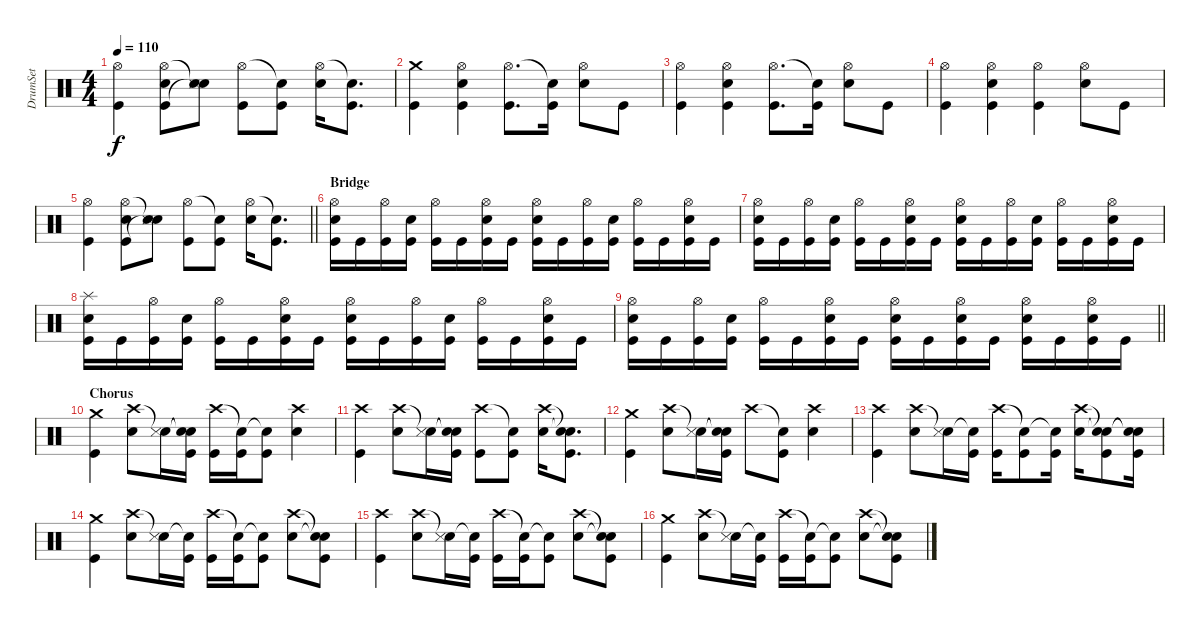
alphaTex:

\track ("DrumSet" "DrumSet") {instrument percussion}
\staff {score}
\articulation defaults
\ts (4 4)
\tempo 110
\clef neutral
\ks c
("Hi-Hat (open)" "Kick (hit)").4{dy f} ("Hi-Hat (open)" "Snare (hit) 2" "Kick (hit)").8 ("Snare (hit)"{t} "Snare (side stick) 3" "Snare (hit)"{t}).8 ("Hi-Hat (open)" "Kick (hit)").8 ("Snare (hit)"{t} "Kick (hit)").8 ("Hi-Hat (open)" "Snare (hit) 2").16 ("Snare (hit)"{t} "Kick (hit)").8{d} |
("Crash medium (hit)" "Kick (hit)").4 ("Hi-Hat (open)" "Snare (hit) 2" "Kick (hit)").4 ("Hi-Hat (open)" "Kick (hit)").8{d} ("Snare (hit)"{t} "Kick (hit)").16 ("Hi-Hat (open)" "Snare (hit) 2").8 "Kick (hit)".8 |
("Hi-Hat (open)" "Kick (hit)").4 ("Hi-Hat (open)" "Snare (hit) 2" "Kick (hit)").4 ("Hi-Hat (open)" "Kick (hit)").8{d} ("Snare (hit)"{t} "Kick (hit)").16 ("Hi-Hat (open)" "Snare (hit) 2").8 "Kick (hit)".8 |
("Hi-Hat (open)" "Kick (hit)").4 ("Hi-Hat (open)" "Snare (hit) 2" "Kick (hit)").4 ("Hi-Hat (open)" "Kick (hit)").4 ("Hi-Hat (open)" "Snare (hit) 2").8 "Kick (hit)".8 |
\barLineRight lightlight
("Hi-Hat (open)" "Kick (hit)").4 ("Hi-Hat (open)" "Snare (hit) 2" "Kick (hit)").8 ("Snare (hit)"{t} "Snare (side stick) 3" "Snare (hit)"{t}).8 ("Hi-Hat (open)" "Kick (hit)").8 ("Snare (hit)"{t} "Kick (hit)").8 ("Hi-Hat (open)" "Snare (hit) 2").16 ("Snare (hit)"{t} "Kick (hit)").8{d} |
\section ("" "Bridge")
("Hi-Hat (open)" "Snare (hit) 2" "Kick (hit)").16 "Kick (hit)".16 ("Hi-Hat (open)" "Kick (hit)").16 ("Snare (hit) 2" "Kick (hit)").16 ("Hi-Hat (open)" "Kick (hit)").16 "Kick (hit)".16 ("Hi-Hat (open)" "Snare (hit) 2" "Kick (hit)").16 "Kick (hit)".16 ("Hi-Hat (open)" "Snare (hit) 2" "Kick (hit)").16 "Kick (hit)".16 ("Hi-Hat (open)" "Kick (hit)").16 ("Snare (hit) 2" "Kick (hit)").16 ("Hi-Hat (open)" "Kick (hit)").16 "Kick (hit)".16 ("Hi-Hat (open)" "Snare (hit) 2" "Kick (hit)").16 "Kick (hit)".16 |
("Hi-Hat (open)" "Snare (hit) 2" "Kick (hit)").16 "Kick (hit)".16 ("Hi-Hat (open)" "Kick (hit)").16 ("Snare (hit) 2" "Kick (hit)").16 ("Hi-Hat (open)" "Kick (hit)").16 "Kick (hit)".16 ("Hi-Hat (open)" "Snare (hit) 2" "Kick (hit)").16 "Kick (hit)".16 ("Hi-Hat (open)" "Snare (hit) 2" "Kick (hit)").16 "Kick (hit)".16 ("Hi-Hat (open)" "Kick (hit)").16 ("Snare (hit) 2" "Kick (hit)").16 ("Hi-Hat (open)" "Kick (hit)").16 "Kick (hit)".16 ("Hi-Hat (open)" "Snare (hit) 2" "Kick (hit)").16 "Kick (hit)".16 |
("Splash (hit)" "Snare (hit) 2" "Kick (hit)").16 "Kick (hit)".16 ("Hi-Hat (open)" "Kick (hit)").16 ("Snare (hit) 2" "Kick (hit)").16 ("Hi-Hat (open)" "Kick (hit)").16 "Kick (hit)".16 ("Hi-Hat (open)" "Snare (hit) 2" "Kick (hit)").16 "Kick (hit)".16 ("Hi-Hat (open)" "Snare (hit) 2" "Kick (hit)").16 "Kick (hit)".16 ("Hi-Hat (open)" "Kick (hit)").16 ("Snare (hit) 2" "Kick (hit)").16 ("Hi-Hat (open)" "Kick (hit)").16 "Kick (hit)".16 ("Hi-Hat (open)" "Snare (hit) 2" "Kick (hit)").16 "Kick (hit)".16 |
\barLineRight lightlight
("Hi-Hat (open)" "Snare (hit) 2" "Kick (hit)").16 "Kick (hit)".16 ("Hi-Hat (open)" "Kick (hit)").16 ("Snare (hit) 2" "Kick (hit)").16 ("Hi-Hat (open)" "Kick (hit)").16 "Kick (hit)".16 ("Hi-Hat (open)" "Snare (hit) 2" "Kick (hit)").16 "Kick (hit)".16 ("Hi-Hat (open)" "Snare (hit) 2" "Kick (hit)").16 "Kick (hit)".16 ("Hi-Hat (open)" "Snare (hit) 2" "Kick (hit)").16 "Kick (hit)".16 ("Hi-Hat (open)" "Snare (hit) 2" "Kick (hit)").16 "Kick (hit)".16 ("Hi-Hat (open)" "Snare (hit) 2" "Kick (hit)").16 "Kick (hit)".16 |
\section ("" "Chorus")
("Crash medium (hit)" "Kick (hit)").4 ("Crash high (hit)" "Snare (hit) 2").8 ("Snare (hit)"{t} "Snare (side stick) 3").16 ("Snare (hit)"{t} "Snare (hit)"{t} "Kick (hit)").16 ("Crash high (hit)" "Kick (hit)").16 ("Snare (hit)"{t} "Kick (hit)").16 ("Snare (hit)"{t} "Kick (hit)").8 ("Crash high (hit)" "Snare (hit) 2").4 |
("Crash high (hit)" "Kick (hit)").4 ("Crash high (hit)" "Snare (hit) 2").8 ("Snare (hit)"{t} "Snare (side stick) 3").16 ("Snare (hit)"{t} "Snare (hit)"{t} "Kick (hit)").16 ("Crash high (hit)" "Kick (hit)").8 ("Snare (hit)"{t} "Kick (hit)").8 ("Crash high (hit)" "Snare (hit) 2").16 ("Snare (hit)"{t} "Snare (hit)"{t} "Kick (hit)").8{d} |
("Crash medium (hit)" "Kick (hit)").4 ("Crash high (hit)" "Snare (hit) 2").8 ("Snare (hit)"{t} "Snare (side stick) 3").16 ("Snare (hit)"{t} "Snare (hit)"{t} "Kick (hit)").16 "Crash high (hit)".8 ("Snare (hit)"{t} "Kick (hit)").8 ("Crash high (hit)" "Snare (hit) 2").4 |
("Crash high (hit)" "Kick (hit)").4 ("Crash high (hit)" "Snare (hit) 2").8 ("Snare (hit)"{t} "Snare (side stick) 3").16 ("Snare (hit)"{t} "Kick (hit)").16 ("Crash high (hit)" "Kick (hit)").16 ("Snare (hit)"{t} "Kick (hit)").8 ("Snare (hit)"{t} "Kick (hit)").16 ("Crash high (hit)" "Snare (hit) 2").16 ("Snare (hit)"{t} "Snare (hit)"{t} "Kick (hit)").8 ("Snare (hit)"{t} "Snare (hit)"{t} "Kick (hit)").16 |
("Crash medium (hit)" "Kick (hit)").4 ("Crash high (hit)" "Snare (hit) 2").8 ("Snare (hit)"{t} "Snare (side stick) 3").16 ("Snare (hit)"{t} "Kick (hit)").16 ("Crash high (hit)" "Kick (hit)").16 ("Snare (hit)"{t} "Kick (hit)").16 ("Snare (hit)"{t} "Kick (hit)").8 ("Crash high (hit)" "Snare (hit) 2").8 ("Snare (hit)"{t} "Snare (hit)"{t} "Kick (hit)").8 |
("Crash high (hit)" "Kick (hit)").4 ("Crash high (hit)" "Snare (hit) 2").8 ("Snare (hit)"{t} "Snare (side stick) 3").16 ("Snare (hit)"{t} "Kick (hit)").16 ("Crash high (hit)" "Kick (hit)").16 ("Snare (hit)"{t} "Kick (hit)").16 ("Snare (hit)"{t} "Kick (hit)").8 ("Crash high (hit)" "Snare (hit) 2").8 ("Snare (hit)"{t} "Snare (hit)"{t} "Kick (hit)").8 |
("Crash medium (hit)" "Kick (hit)").4 ("Crash high (hit)" "Snare (hit) 2").8 ("Snare (hit)"{t} "Snare (side stick) 3").16 ("Snare (hit)"{t} "Kick (hit)").16 ("Crash high (hit)" "Kick (hit)").16 ("Snare (hit)"{t} "Kick (hit)").16 ("Snare (hit)"{t} "Kick (hit)").8 ("Crash high (hit)" "Snare (hit) 2").8 ("Snare (hit)"{t} "Snare (hit)"{t} "Kick (hit)").8
